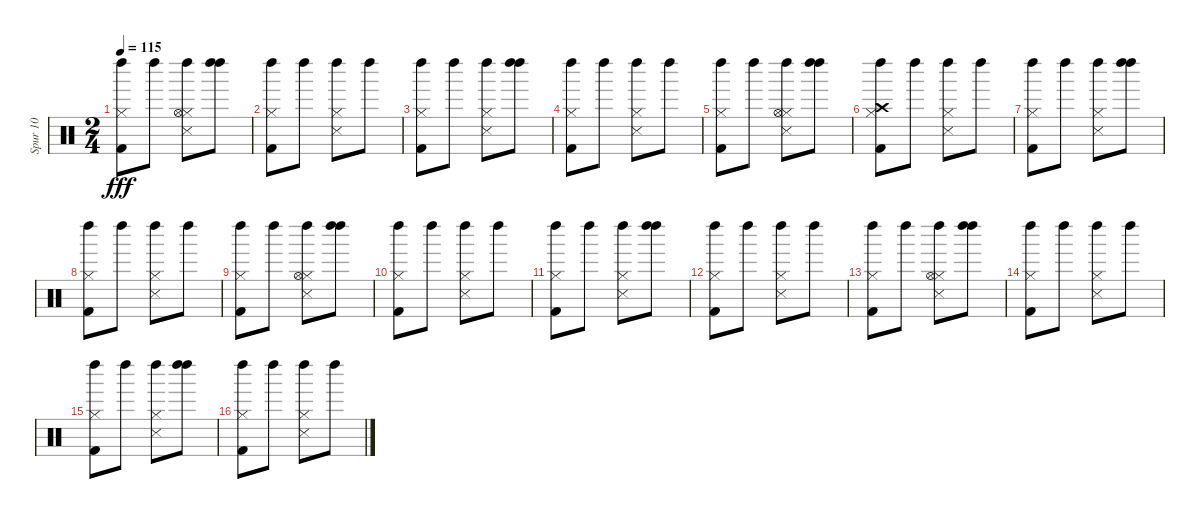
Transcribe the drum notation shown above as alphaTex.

\track ("Spur 10" "Spur 10") {instrument percussion}
\staff {score}
\articulation defaults
\ts (2 4)
\tempo 115
\clef neutral
\ks c
("Kick (hit) 2" "Hi-Hat (closed)" "Left Maraca (hit)").8{dy fff} "Left Maraca (hit)".8 ("Snare (side stick) 3" "Hi-Hat (closed)" "Hi-Hat (open)" "Left Maraca (hit)").8 ("Left Maraca (hit)" "Left Maraca (hit)").8 |
("Hi-Hat (closed)" "Kick (hit) 2" "Left Maraca (hit)").8 "Left Maraca (hit)".8 ("Hi-Hat (closed)" "Snare (side stick) 3" "Left Maraca (hit)").8 "Left Maraca (hit)".8 |
("Kick (hit) 2" "Hi-Hat (closed)" "Left Maraca (hit)").8 "Left Maraca (hit)".8 ("Hi-Hat (closed)" "Snare (side stick) 3" "Left Maraca (hit)").8 ("Left Maraca (hit)" "Left Maraca (hit)").8 |
("Kick (hit) 2" "Hi-Hat (closed)" "Left Maraca (hit)").8 "Left Maraca (hit)".8 ("Snare (side stick) 3" "Hi-Hat (closed)" "Left Maraca (hit)").8 "Left Maraca (hit)".8 |
("Kick (hit) 2" "Hi-Hat (closed)" "Left Maraca (hit)").8 "Left Maraca (hit)".8 ("Snare (side stick) 3" "Hi-Hat (closed)" "Hi-Hat (open)" "Left Maraca (hit)").8 ("Left Maraca (hit)" "Left Maraca (hit)").8 |
("Hi-Hat (closed)" "Kick (hit) 2" "Crash high (hit)" "Left Maraca (hit)").8 "Left Maraca (hit)".8 ("Hi-Hat (closed)" "Snare (side stick) 3" "Left Maraca (hit)").8 "Left Maraca (hit)".8 |
("Left Maraca (hit)" "Kick (hit) 2" "Hi-Hat (closed)").8 "Left Maraca (hit)".8 ("Hi-Hat (closed)" "Snare (side stick) 3" "Left Maraca (hit)").8 ("Left Maraca (hit)" "Left Maraca (hit)").8 |
("Kick (hit) 2" "Hi-Hat (closed)" "Left Maraca (hit)").8 "Left Maraca (hit)".8 ("Snare (side stick) 3" "Hi-Hat (closed)" "Left Maraca (hit)").8 "Left Maraca (hit)".8 |
("Kick (hit) 2" "Hi-Hat (closed)" "Left Maraca (hit)").8 "Left Maraca (hit)".8 ("Snare (side stick) 3" "Hi-Hat (closed)" "Hi-Hat (open)" "Left Maraca (hit)").8 ("Left Maraca (hit)" "Left Maraca (hit)").8 |
("Hi-Hat (closed)" "Kick (hit) 2" "Left Maraca (hit)").8 "Left Maraca (hit)".8 ("Hi-Hat (closed)" "Snare (side stick) 3" "Left Maraca (hit)").8 "Left Maraca (hit)".8 |
("Left Maraca (hit)" "Kick (hit) 2" "Hi-Hat (closed)").8 "Left Maraca (hit)".8 ("Hi-Hat (closed)" "Snare (side stick) 3" "Left Maraca (hit)").8 ("Left Maraca (hit)" "Left Maraca (hit)").8 |
("Kick (hit) 2" "Hi-Hat (closed)" "Left Maraca (hit)").8 "Left Maraca (hit)".8 ("Snare (side stick) 3" "Hi-Hat (closed)" "Left Maraca (hit)").8 "Left Maraca (hit)".8 |
("Kick (hit) 2" "Hi-Hat (closed)" "Left Maraca (hit)").8 "Left Maraca (hit)".8 ("Snare (side stick) 3" "Hi-Hat (closed)" "Hi-Hat (open)" "Left Maraca (hit)").8 ("Left Maraca (hit)" "Left Maraca (hit)").8 |
("Hi-Hat (closed)" "Kick (hit) 2" "Left Maraca (hit)").8 "Left Maraca (hit)".8 ("Left Maraca (hit)" "Hi-Hat (closed)" "Snare (side stick) 3").8 "Left Maraca (hit)".8 |
("Left Maraca (hit)" "Kick (hit) 2" "Hi-Hat (closed)").8 "Left Maraca (hit)".8 ("Hi-Hat (closed)" "Snare (side stick) 3" "Left Maraca (hit)").8 ("Left Maraca (hit)" "Left Maraca (hit)").8 |
("Kick (hit) 2" "Hi-Hat (closed)" "Left Maraca (hit)").8 "Left Maraca (hit)".8 ("Left Maraca (hit)" "Snare (side stick) 3" "Hi-Hat (closed)").8 "Left Maraca (hit)".8
